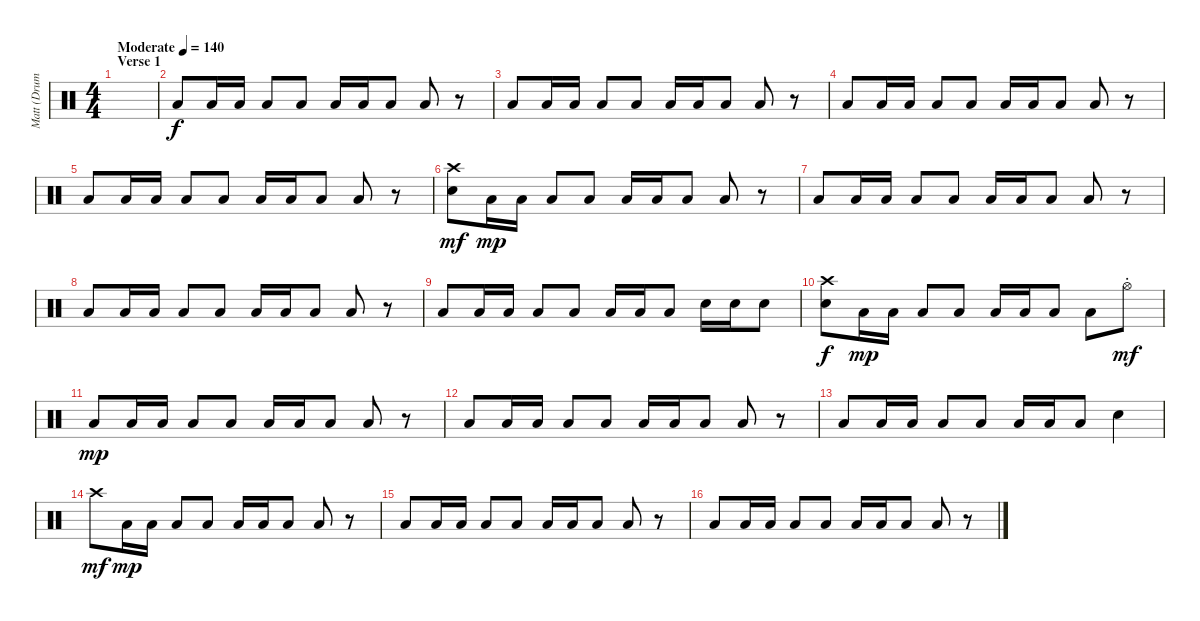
\track ("Matt (Drums)" "Matt (Drum") {instrument percussion}
\staff {score}
\articulation defaults
\ts (4 4)
\section ("" "Verse 1")
\tempo (140 "Moderate")
\clef neutral
\ks c
|
"Low Floor Tom (hit)".8 "Low Floor Tom (hit)".16 "Low Floor Tom (hit)".16 "Low Floor Tom (hit)".8 "Low Floor Tom (hit)".8 "Low Floor Tom (hit)".16 "Low Floor Tom (hit)".16 "Low Floor Tom (hit)".8 "Low Floor Tom (hit)".8 r.8 |
"Low Floor Tom (hit)".8 "Low Floor Tom (hit)".16 "Low Floor Tom (hit)".16 "Low Floor Tom (hit)".8 "Low Floor Tom (hit)".8 "Low Floor Tom (hit)".16 "Low Floor Tom (hit)".16 "Low Floor Tom (hit)".8 "Low Floor Tom (hit)".8 r.8 |
"Low Floor Tom (hit)".8 "Low Floor Tom (hit)".16 "Low Floor Tom (hit)".16 "Low Floor Tom (hit)".8 "Low Floor Tom (hit)".8 "Low Floor Tom (hit)".16 "Low Floor Tom (hit)".16 "Low Floor Tom (hit)".8 "Low Floor Tom (hit)".8 r.8 |
"Low Floor Tom (hit)".8 "Low Floor Tom (hit)".16 "Low Floor Tom (hit)".16 "Low Floor Tom (hit)".8 "Low Floor Tom (hit)".8 "Low Floor Tom (hit)".16 "Low Floor Tom (hit)".16 "Low Floor Tom (hit)".8 "Low Floor Tom (hit)".8 r.8 |
("Crash high (hit)" "Snare (hit) 2").8{dy mf} "Low Floor Tom (hit)".16{dy mp} "Low Floor Tom (hit)".16 "Low Floor Tom (hit)".8 "Low Floor Tom (hit)".8 "Low Floor Tom (hit)".16 "Low Floor Tom (hit)".16 "Low Floor Tom (hit)".8 "Low Floor Tom (hit)".8 r.8 |
"Low Floor Tom (hit)".8 "Low Floor Tom (hit)".16 "Low Floor Tom (hit)".16 "Low Floor Tom (hit)".8 "Low Floor Tom (hit)".8 "Low Floor Tom (hit)".16 "Low Floor Tom (hit)".16 "Low Floor Tom (hit)".8 "Low Floor Tom (hit)".8 r.8 |
"Low Floor Tom (hit)".8 "Low Floor Tom (hit)".16 "Low Floor Tom (hit)".16 "Low Floor Tom (hit)".8 "Low Floor Tom (hit)".8 "Low Floor Tom (hit)".16 "Low Floor Tom (hit)".16 "Low Floor Tom (hit)".8 "Low Floor Tom (hit)".8 r.8 |
"Low Floor Tom (hit)".8 "Low Floor Tom (hit)".16 "Low Floor Tom (hit)".16 "Low Floor Tom (hit)".8 "Low Floor Tom (hit)".8 "Low Floor Tom (hit)".16 "Low Floor Tom (hit)".16 "Low Floor Tom (hit)".8 "Snare (hit) 2".16 "Snare (hit) 2".16 "Snare (hit) 2".8 |
("Crash high (hit)" "Snare (hit) 2").8{dy f} "Low Floor Tom (hit)".16{dy mp} "Low Floor Tom (hit)".16 "Low Floor Tom (hit)".8 "Low Floor Tom (hit)".8 "Low Floor Tom (hit)".16 "Low Floor Tom (hit)".16 "Low Floor Tom (hit)".8 "Low Floor Tom (hit)".8 "Hi-Hat (open)"{st}.8{dy mf} |
"Low Floor Tom (hit)".8{dy mp} "Low Floor Tom (hit)".16 "Low Floor Tom (hit)".16 "Low Floor Tom (hit)".8 "Low Floor Tom (hit)".8 "Low Floor Tom (hit)".16 "Low Floor Tom (hit)".16 "Low Floor Tom (hit)".8 "Low Floor Tom (hit)".8 r.8 |
"Low Floor Tom (hit)".8 "Low Floor Tom (hit)".16 "Low Floor Tom (hit)".16 "Low Floor Tom (hit)".8 "Low Floor Tom (hit)".8 "Low Floor Tom (hit)".16 "Low Floor Tom (hit)".16 "Low Floor Tom (hit)".8 "Low Floor Tom (hit)".8 r.8 |
"Low Floor Tom (hit)".8 "Low Floor Tom (hit)".16 "Low Floor Tom (hit)".16 "Low Floor Tom (hit)".8 "Low Floor Tom (hit)".8 "Low Floor Tom (hit)".16 "Low Floor Tom (hit)".16 "Low Floor Tom (hit)".8 "Snare (hit) 2".4 |
"Crash high (hit)".8{dy mf} "Low Floor Tom (hit)".16{dy mp} "Low Floor Tom (hit)".16 "Low Floor Tom (hit)".8 "Low Floor Tom (hit)".8 "Low Floor Tom (hit)".16 "Low Floor Tom (hit)".16 "Low Floor Tom (hit)".8 "Low Floor Tom (hit)".8 r.8 |
"Low Floor Tom (hit)".8 "Low Floor Tom (hit)".16 "Low Floor Tom (hit)".16 "Low Floor Tom (hit)".8 "Low Floor Tom (hit)".8 "Low Floor Tom (hit)".16 "Low Floor Tom (hit)".16 "Low Floor Tom (hit)".8 "Low Floor Tom (hit)".8 r.8 |
"Low Floor Tom (hit)".8 "Low Floor Tom (hit)".16 "Low Floor Tom (hit)".16 "Low Floor Tom (hit)".8 "Low Floor Tom (hit)".8 "Low Floor Tom (hit)".16 "Low Floor Tom (hit)".16 "Low Floor Tom (hit)".8 "Low Floor Tom (hit)".8 r.8
